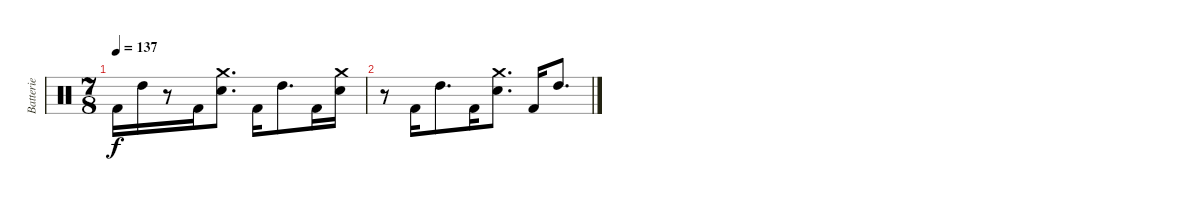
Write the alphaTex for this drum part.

\track ("Batterie" "Batterie") {instrument percussion}
\staff {score}
\articulation defaults
\ts (7 8)
\tempo 137
\clef neutral
\ks c "Kick (hit) 2".16{dy f} "High Tom (hit)".16
r.8 "Kick (hit) 2".16 ("Snare (hit) 2" "Crash medium (hit)").8{d} "Kick (hit) 2".16 "High Tom (hit)".8{d} "Kick (hit) 2".16 ("Snare (hit) 2" "Crash medium (hit)").16 |
r.8 "Kick (hit) 2".16 "High Tom (hit)".8{d} "Kick (hit) 2".16 ("Snare (hit) 2" "Crash medium (hit)").8{d} "Kick (hit) 2".16 "High Tom (hit)".8{d}
